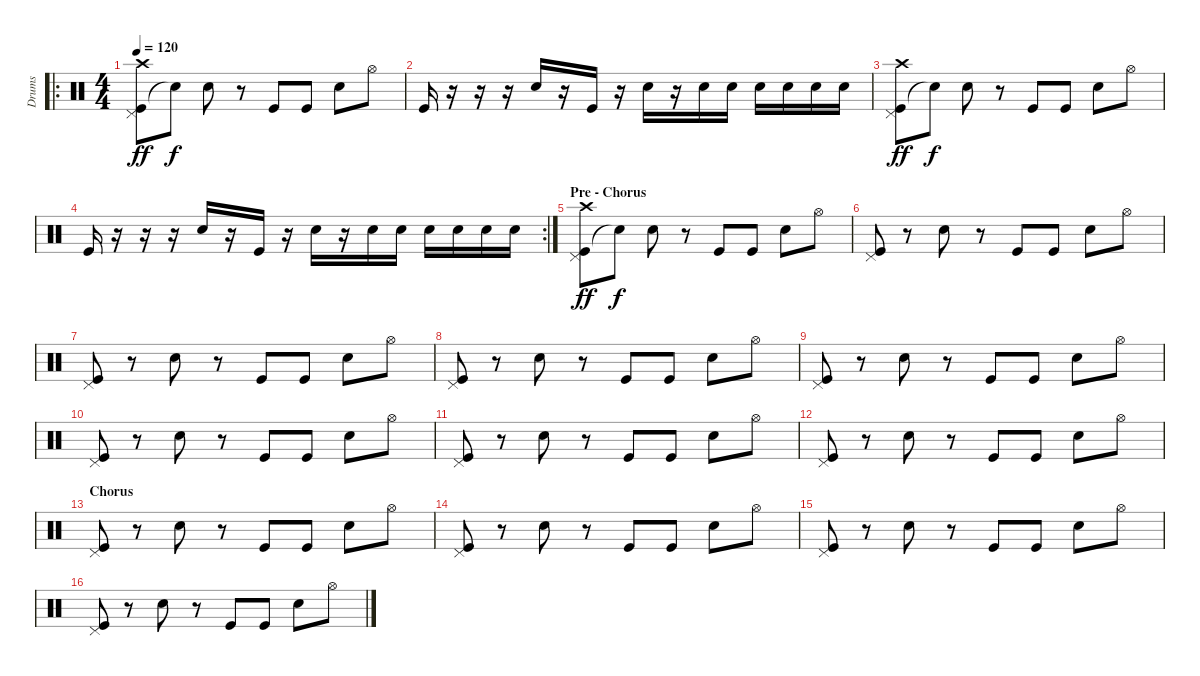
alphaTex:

\track ("Drums" "Drums") {instrument percussion}
\staff {score}
\articulation defaults
\ro
\ts (4 4)
\tempo 120
\clef neutral
\ks c
("Kick (hit)" "Pedal Hi-Hat (hit)" "Crash high (hit)").8{dy ff} "Snare (hit)"{t}.8{dy f} "Snare (hit) 2".8 r.8 "Kick (hit)".8 "Kick (hit)".8 "Snare (hit) 2".8 "Hi-Hat (open)".8 |
"Kick (hit)".16 r.16 r.16 r.16 "Snare (hit) 2".16 r.16 "Kick (hit)".16 r.16 "Snare (hit) 2".16 r.16 "Snare (hit) 2".16 "Snare (hit) 2".16 "Snare (hit) 2".16 "Snare (hit) 2".16 "Snare (hit) 2".16 "Snare (hit) 2".16 |
("Kick (hit)" "Pedal Hi-Hat (hit)" "Crash high (hit)").8{dy ff} "Snare (hit)"{t}.8{dy f} "Snare (hit) 2".8 r.8 "Kick (hit)".8 "Kick (hit)".8 "Snare (hit) 2".8 "Hi-Hat (open)".8 |
\rc 2 "Kick (hit)".16
r.16 r.16 r.16 "Snare (hit) 2".16 r.16 "Kick (hit)".16 r.16 "Snare (hit) 2".16 r.16 "Snare (hit) 2".16 "Snare (hit) 2".16 "Snare (hit) 2".16 "Snare (hit) 2".16 "Snare (hit) 2".16 "Snare (hit) 2".16 |
\section ("" "Pre - Chorus")
("Kick (hit)" "Pedal Hi-Hat (hit)" "Crash high (hit)").8{dy ff} "Snare (hit)"{t}.8{dy f} "Snare (hit) 2".8 r.8 "Kick (hit)".8 "Kick (hit)".8 "Snare (hit) 2".8 "Hi-Hat (open)".8 |
("Kick (hit)" "Pedal Hi-Hat (hit)").8 r.8 "Snare (hit) 2".8 r.8 "Kick (hit)".8 "Kick (hit)".8 "Snare (hit) 2".8 "Hi-Hat (open)".8 |
("Kick (hit)" "Pedal Hi-Hat (hit)").8 r.8 "Snare (hit) 2".8 r.8 "Kick (hit)".8 "Kick (hit)".8 "Snare (hit) 2".8 "Hi-Hat (open)".8 |
("Kick (hit)" "Pedal Hi-Hat (hit)").8 r.8 "Snare (hit) 2".8 r.8 "Kick (hit)".8 "Kick (hit)".8 "Snare (hit) 2".8 "Hi-Hat (open)".8 |
("Kick (hit)" "Pedal Hi-Hat (hit)").8 r.8 "Snare (hit) 2".8 r.8 "Kick (hit)".8 "Kick (hit)".8 "Snare (hit) 2".8 "Hi-Hat (open)".8 |
("Kick (hit)" "Pedal Hi-Hat (hit)").8 r.8 "Snare (hit) 2".8 r.8 "Kick (hit)".8 "Kick (hit)".8 "Snare (hit) 2".8 "Hi-Hat (open)".8 |
("Kick (hit)" "Pedal Hi-Hat (hit)").8 r.8 "Snare (hit) 2".8 r.8 "Kick (hit)".8 "Kick (hit)".8 "Snare (hit) 2".8 "Hi-Hat (open)".8 |
("Kick (hit)" "Pedal Hi-Hat (hit)").8 r.8 "Snare (hit) 2".8 r.8 "Kick (hit)".8 "Kick (hit)".8 "Snare (hit) 2".8 "Hi-Hat (open)".8 |
\section ("" "Chorus")
("Kick (hit)" "Pedal Hi-Hat (hit)").8 r.8 "Snare (hit) 2".8 r.8 "Kick (hit)".8 "Kick (hit)".8 "Snare (hit) 2".8 "Hi-Hat (open)".8 |
("Kick (hit)" "Pedal Hi-Hat (hit)").8 r.8 "Snare (hit) 2".8 r.8 "Kick (hit)".8 "Kick (hit)".8 "Snare (hit) 2".8 "Hi-Hat (open)".8 |
("Kick (hit)" "Pedal Hi-Hat (hit)").8 r.8 "Snare (hit) 2".8 r.8 "Kick (hit)".8 "Kick (hit)".8 "Snare (hit) 2".8 "Hi-Hat (open)".8 |
("Kick (hit)" "Pedal Hi-Hat (hit)").8 r.8 "Snare (hit) 2".8 r.8 "Kick (hit)".8 "Kick (hit)".8 "Snare (hit) 2".8 "Hi-Hat (open)".8
